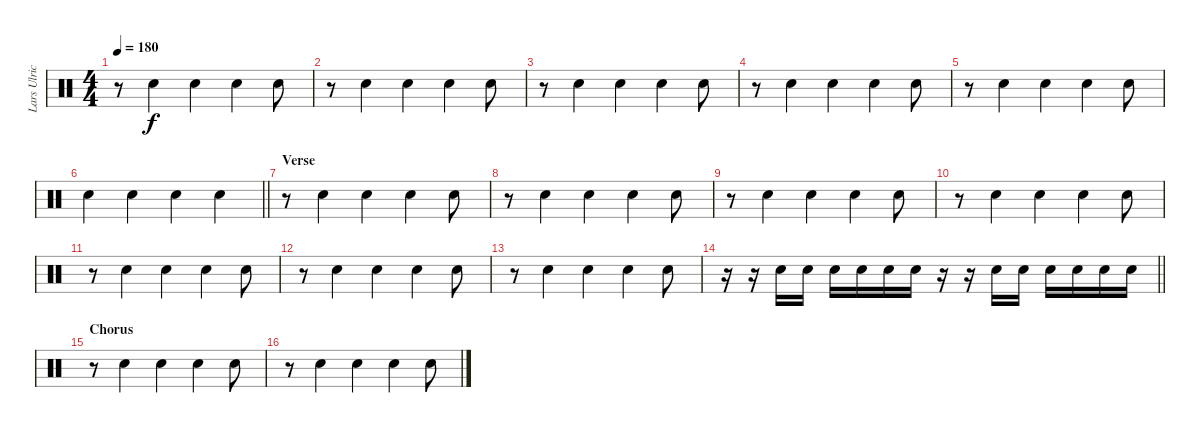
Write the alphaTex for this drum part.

\track ("Lars Ulrich" "Lars Ulric") {instrument percussion}
\staff {score}
\articulation defaults
\ts (4 4)
\tempo 180
\clef neutral
\ks c
r.8{dy f} "Snare (hit) 2".4 "Snare (hit) 2".4 "Snare (hit) 2".4 "Snare (hit) 2".8 |
r.8 "Snare (hit) 2".4 "Snare (hit) 2".4 "Snare (hit) 2".4 "Snare (hit) 2".8 |
r.8 "Snare (hit) 2".4 "Snare (hit) 2".4 "Snare (hit) 2".4 "Snare (hit) 2".8 |
r.8 "Snare (hit) 2".4 "Snare (hit) 2".4 "Snare (hit) 2".4 "Snare (hit) 2".8 |
r.8 "Snare (hit) 2".4 "Snare (hit) 2".4 "Snare (hit) 2".4 "Snare (hit) 2".8 |
\barLineRight lightlight "Snare (hit) 2".4 "Snare (hit) 2".4 "Snare (hit) 2".4 "Snare (hit) 2".4
|
\section ("" "Verse")
r.8 "Snare (hit) 2".4 "Snare (hit) 2".4 "Snare (hit) 2".4 "Snare (hit) 2".8 |
r.8 "Snare (hit) 2".4 "Snare (hit) 2".4 "Snare (hit) 2".4 "Snare (hit) 2".8 |
r.8 "Snare (hit) 2".4 "Snare (hit) 2".4 "Snare (hit) 2".4 "Snare (hit) 2".8 |
r.8 "Snare (hit) 2".4 "Snare (hit) 2".4 "Snare (hit) 2".4 "Snare (hit) 2".8 |
r.8 "Snare (hit) 2".4 "Snare (hit) 2".4 "Snare (hit) 2".4 "Snare (hit) 2".8 |
r.8 "Snare (hit) 2".4 "Snare (hit) 2".4 "Snare (hit) 2".4 "Snare (hit) 2".8 |
r.8 "Snare (hit) 2".4 "Snare (hit) 2".4 "Snare (hit) 2".4 "Snare (hit) 2".8 |
\barLineRight lightlight
r.16 r.16 "Snare (hit) 2".16 "Snare (hit) 2".16 "Snare (hit) 2".16 "Snare (hit) 2".16 "Snare (hit) 2".16 "Snare (hit) 2".16 r.16 r.16 "Snare (hit) 2".16 "Snare (hit) 2".16 "Snare (hit) 2".16 "Snare (hit) 2".16 "Snare (hit) 2".16 "Snare (hit) 2".16 |
\section ("" "Chorus")
r.8 "Snare (hit) 2".4 "Snare (hit) 2".4 "Snare (hit) 2".4 "Snare (hit) 2".8 |
r.8 "Snare (hit) 2".4 "Snare (hit) 2".4 "Snare (hit) 2".4 "Snare (hit) 2".8
